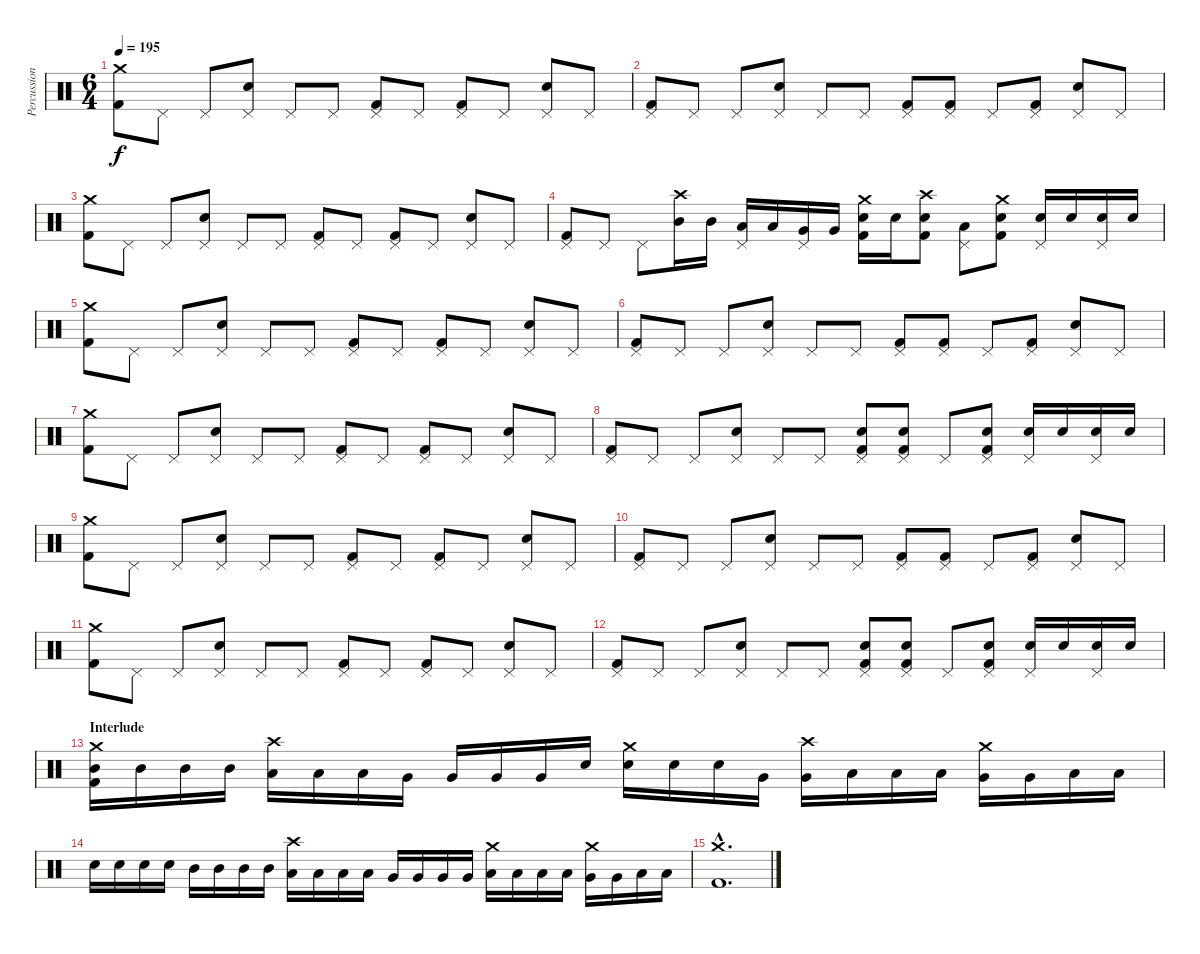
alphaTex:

\track ("Percussion" "Percussion") {instrument percussion}
\staff {score}
\articulation defaults
\ts (6 4)
\tempo 195
\clef neutral
\ks c
("Crash medium (hit)" "Kick (hit) 2").8{dy f} "Pedal Hi-Hat (hit)".8 "Pedal Hi-Hat (hit)".8 ("Pedal Hi-Hat (hit)" "Electric Snare (hit)").8 "Pedal Hi-Hat (hit)".8 "Pedal Hi-Hat (hit)".8 ("Pedal Hi-Hat (hit)" "Kick (hit) 2").8 "Pedal Hi-Hat (hit)".8 ("Pedal Hi-Hat (hit)" "Kick (hit) 2").8 "Pedal Hi-Hat (hit)".8 ("Pedal Hi-Hat (hit)" "Electric Snare (hit)").8 "Pedal Hi-Hat (hit)".8 |
("Pedal Hi-Hat (hit)" "Kick (hit) 2").8 "Pedal Hi-Hat (hit)".8 "Pedal Hi-Hat (hit)".8 ("Pedal Hi-Hat (hit)" "Electric Snare (hit)").8 "Pedal Hi-Hat (hit)".8 "Pedal Hi-Hat (hit)".8 ("Pedal Hi-Hat (hit)" "Kick (hit) 2").8 ("Pedal Hi-Hat (hit)" "Kick (hit) 2").8 "Pedal Hi-Hat (hit)".8 ("Pedal Hi-Hat (hit)" "Kick (hit) 2").8 ("Pedal Hi-Hat (hit)" "Electric Snare (hit)").8 "Pedal Hi-Hat (hit)".8 |
("Crash medium (hit)" "Kick (hit) 2").8 "Pedal Hi-Hat (hit)".8 "Pedal Hi-Hat (hit)".8 ("Pedal Hi-Hat (hit)" "Electric Snare (hit)").8 "Pedal Hi-Hat (hit)".8 "Pedal Hi-Hat (hit)".8 ("Pedal Hi-Hat (hit)" "Kick (hit) 2").8 "Pedal Hi-Hat (hit)".8 ("Pedal Hi-Hat (hit)" "Kick (hit) 2").8 "Pedal Hi-Hat (hit)".8 ("Pedal Hi-Hat (hit)" "Electric Snare (hit)").8 "Pedal Hi-Hat (hit)".8 |
("Pedal Hi-Hat (hit)" "Kick (hit) 2").8 "Pedal Hi-Hat (hit)".8 "Pedal Hi-Hat (hit)".8 ("Crash high (hit)" "Mid Tom (hit)").16 "Mid Tom (hit)".16 ("Pedal Hi-Hat (hit)" "Low Tom (hit)").16 "Low Tom (hit)".16 ("Pedal Hi-Hat (hit)" "Very Low Tom (hit)").16 "Very Low Tom (hit)".16 ("Crash medium (hit)" "Electric Snare (hit)" "Kick (hit) 2").16 "Electric Snare (hit)".16 ("Crash high (hit)" "Electric Snare (hit)" "Kick (hit) 2").8 ("Pedal Hi-Hat (hit)" "Low Floor Tom (hit)").8 ("Crash medium (hit)" "Electric Snare (hit)" "Kick (hit) 2").8 ("Pedal Hi-Hat (hit)" "Electric Snare (hit)").16 "Electric Snare (hit)".16 ("Pedal Hi-Hat (hit)" "Electric Snare (hit)").16 "Electric Snare (hit)".16 |
("Crash medium (hit)" "Kick (hit) 2").8 "Pedal Hi-Hat (hit)".8 "Pedal Hi-Hat (hit)".8 ("Pedal Hi-Hat (hit)" "Electric Snare (hit)").8 "Pedal Hi-Hat (hit)".8 "Pedal Hi-Hat (hit)".8 ("Pedal Hi-Hat (hit)" "Kick (hit) 2").8 "Pedal Hi-Hat (hit)".8 ("Pedal Hi-Hat (hit)" "Kick (hit) 2").8 "Pedal Hi-Hat (hit)".8 ("Pedal Hi-Hat (hit)" "Electric Snare (hit)").8 "Pedal Hi-Hat (hit)".8 |
("Pedal Hi-Hat (hit)" "Kick (hit) 2").8 "Pedal Hi-Hat (hit)".8 "Pedal Hi-Hat (hit)".8 ("Pedal Hi-Hat (hit)" "Electric Snare (hit)").8 "Pedal Hi-Hat (hit)".8 "Pedal Hi-Hat (hit)".8 ("Pedal Hi-Hat (hit)" "Kick (hit) 2").8 ("Pedal Hi-Hat (hit)" "Kick (hit) 2").8 "Pedal Hi-Hat (hit)".8 ("Pedal Hi-Hat (hit)" "Kick (hit) 2").8 ("Pedal Hi-Hat (hit)" "Electric Snare (hit)").8 "Pedal Hi-Hat (hit)".8 |
("Crash medium (hit)" "Kick (hit) 2").8 "Pedal Hi-Hat (hit)".8 "Pedal Hi-Hat (hit)".8 ("Pedal Hi-Hat (hit)" "Electric Snare (hit)").8 "Pedal Hi-Hat (hit)".8 "Pedal Hi-Hat (hit)".8 ("Pedal Hi-Hat (hit)" "Kick (hit) 2").8 "Pedal Hi-Hat (hit)".8 ("Pedal Hi-Hat (hit)" "Kick (hit) 2").8 "Pedal Hi-Hat (hit)".8 ("Pedal Hi-Hat (hit)" "Electric Snare (hit)").8 "Pedal Hi-Hat (hit)".8 |
("Pedal Hi-Hat (hit)" "Kick (hit) 2").8 "Pedal Hi-Hat (hit)".8 "Pedal Hi-Hat (hit)".8 ("Pedal Hi-Hat (hit)" "Electric Snare (hit)").8 "Pedal Hi-Hat (hit)".8 "Pedal Hi-Hat (hit)".8 ("Pedal Hi-Hat (hit)" "Electric Snare (hit)" "Kick (hit) 2").8 ("Pedal Hi-Hat (hit)" "Electric Snare (hit)" "Kick (hit) 2").8 "Pedal Hi-Hat (hit)".8 ("Pedal Hi-Hat (hit)" "Electric Snare (hit)" "Kick (hit) 2").8 ("Pedal Hi-Hat (hit)" "Electric Snare (hit)").16 "Electric Snare (hit)".16 ("Pedal Hi-Hat (hit)" "Electric Snare (hit)").16 "Electric Snare (hit)".16 |
("Crash medium (hit)" "Kick (hit) 2").8 "Pedal Hi-Hat (hit)".8 "Pedal Hi-Hat (hit)".8 ("Pedal Hi-Hat (hit)" "Electric Snare (hit)").8 "Pedal Hi-Hat (hit)".8 "Pedal Hi-Hat (hit)".8 ("Pedal Hi-Hat (hit)" "Kick (hit) 2").8 "Pedal Hi-Hat (hit)".8 ("Pedal Hi-Hat (hit)" "Kick (hit) 2").8 "Pedal Hi-Hat (hit)".8 ("Pedal Hi-Hat (hit)" "Electric Snare (hit)").8 "Pedal Hi-Hat (hit)".8 |
("Pedal Hi-Hat (hit)" "Kick (hit) 2").8 "Pedal Hi-Hat (hit)".8 "Pedal Hi-Hat (hit)".8 ("Pedal Hi-Hat (hit)" "Electric Snare (hit)").8 "Pedal Hi-Hat (hit)".8 "Pedal Hi-Hat (hit)".8 ("Pedal Hi-Hat (hit)" "Kick (hit) 2").8 ("Pedal Hi-Hat (hit)" "Kick (hit) 2").8 "Pedal Hi-Hat (hit)".8 ("Pedal Hi-Hat (hit)" "Kick (hit) 2").8 ("Pedal Hi-Hat (hit)" "Electric Snare (hit)").8 "Pedal Hi-Hat (hit)".8 |
("Crash medium (hit)" "Kick (hit) 2").8 "Pedal Hi-Hat (hit)".8 "Pedal Hi-Hat (hit)".8 ("Pedal Hi-Hat (hit)" "Electric Snare (hit)").8 "Pedal Hi-Hat (hit)".8 "Pedal Hi-Hat (hit)".8 ("Pedal Hi-Hat (hit)" "Kick (hit) 2").8 "Pedal Hi-Hat (hit)".8 ("Pedal Hi-Hat (hit)" "Kick (hit) 2").8 "Pedal Hi-Hat (hit)".8 ("Pedal Hi-Hat (hit)" "Electric Snare (hit)").8 "Pedal Hi-Hat (hit)".8 |
("Pedal Hi-Hat (hit)" "Kick (hit) 2").8 "Pedal Hi-Hat (hit)".8 "Pedal Hi-Hat (hit)".8 ("Pedal Hi-Hat (hit)" "Electric Snare (hit)").8 "Pedal Hi-Hat (hit)".8 "Pedal Hi-Hat (hit)".8 ("Pedal Hi-Hat (hit)" "Electric Snare (hit)" "Kick (hit) 2").8 ("Pedal Hi-Hat (hit)" "Electric Snare (hit)" "Kick (hit) 2").8 "Pedal Hi-Hat (hit)".8 ("Pedal Hi-Hat (hit)" "Electric Snare (hit)" "Kick (hit) 2").8 ("Pedal Hi-Hat (hit)" "Electric Snare (hit)").16 "Electric Snare (hit)".16 ("Pedal Hi-Hat (hit)" "Electric Snare (hit)").16 "Electric Snare (hit)".16 |
\section ("" "Interlude")
("Crash medium (hit)" "Mid Tom (hit)" "Kick (hit) 2").16 "Mid Tom (hit)".16 "Mid Tom (hit)".16 "Mid Tom (hit)".16 ("Crash high (hit)" "Low Tom (hit)").16 "Low Tom (hit)".16 "Low Tom (hit)".16 "Very Low Tom (hit)".16 "Very Low Tom (hit)".16 "Very Low Tom (hit)".16 "Very Low Tom (hit)".16 "Electric Snare (hit)".16 ("Crash medium (hit)" "Electric Snare (hit)").16 "Electric Snare (hit)".16 "Electric Snare (hit)".16 "Very Low Tom (hit)".16 ("Crash high (hit)" "Very Low Tom (hit)").16 "Low Floor Tom (hit)".16 "Low Floor Tom (hit)".16 "Low Tom (hit)".16 ("Crash medium (hit)" "Very Low Tom (hit)").16 "Very Low Tom (hit)".16 "Low Floor Tom (hit)".16 "Low Floor Tom (hit)".16 |
"Electric Snare (hit)".16 "Electric Snare (hit)".16 "Electric Snare (hit)".16 "Electric Snare (hit)".16 "Mid Tom (hit)".16 "Mid Tom (hit)".16 "Mid Tom (hit)".16 "Mid Tom (hit)".16 ("Crash high (hit)" "Low Tom (hit)").16 "Low Tom (hit)".16 "Low Tom (hit)".16 "Low Tom (hit)".16 "Very Low Tom (hit)".16 "Very Low Tom (hit)".16 "Very Low Tom (hit)".16 "Very Low Tom (hit)".16 ("Crash medium (hit)" "Low Tom (hit)").16 "Low Tom (hit)".16 "Low Tom (hit)".16 "Low Tom (hit)".16 ("Crash medium (hit)" "Very Low Tom (hit)").16 "Very Low Tom (hit)".16 "Low Floor Tom (hit)".16 "Low Floor Tom (hit)".16 |
("Crash medium (hit)"{hac} "Kick (hit) 2"{hac}).1{d}
